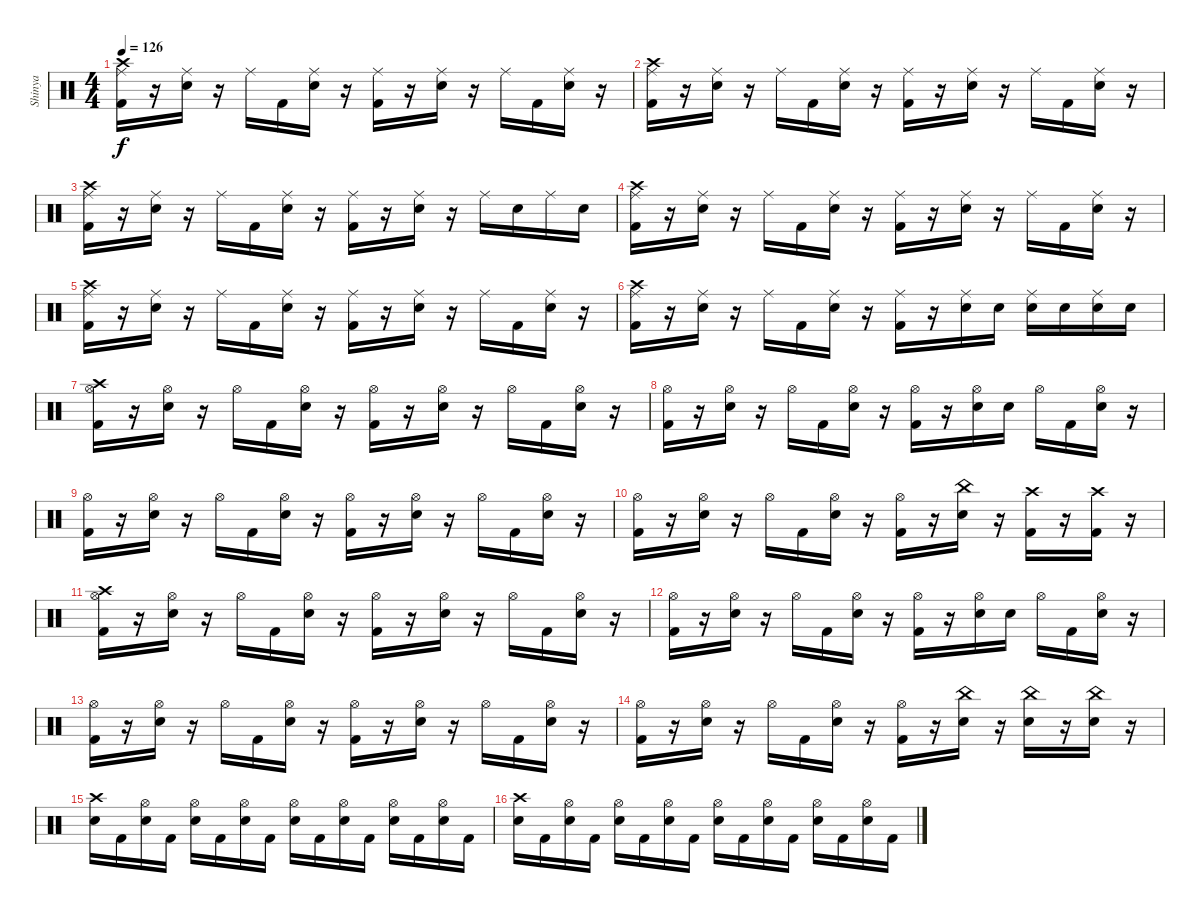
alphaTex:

\track ("Shinya" "Shinya") {instrument percussion}
\staff {score}
\articulation defaults
\ts (4 4)
\tempo 126
\clef neutral
\ks c
("Ride (middle)" "Crash high (hit)" "Kick (hit) 2").16{dy f} r.16 ("Ride (middle)" "Electric Snare (hit)").16 r.16 "Ride (middle)".16 "Kick (hit) 2".16 ("Ride (middle)" "Electric Snare (hit)").16 r.16 ("Ride (middle)" "Kick (hit) 2").16 r.16 ("Ride (middle)" "Electric Snare (hit)").16 r.16 "Ride (middle)".16 "Kick (hit) 2".16 ("Ride (middle)" "Electric Snare (hit)").16 r.16 |
("Ride (middle)" "Crash high (hit)" "Kick (hit) 2").16 r.16 ("Ride (middle)" "Electric Snare (hit)").16 r.16 "Ride (middle)".16 "Kick (hit) 2".16 ("Ride (middle)" "Electric Snare (hit)").16 r.16 ("Ride (middle)" "Kick (hit) 2").16 r.16 ("Ride (middle)" "Electric Snare (hit)").16 r.16 "Ride (middle)".16 "Kick (hit) 2".16 ("Ride (middle)" "Electric Snare (hit)").16 r.16 |
("Ride (middle)" "Crash high (hit)" "Kick (hit) 2").16 r.16 ("Ride (middle)" "Electric Snare (hit)").16 r.16 "Ride (middle)".16 "Kick (hit) 2".16 ("Ride (middle)" "Electric Snare (hit)").16 r.16 ("Ride (middle)" "Kick (hit) 2").16 r.16 ("Ride (middle)" "Electric Snare (hit)").16 r.16 "Ride (middle)".16 "Electric Snare (hit)".16 "Ride (middle)".16 "Electric Snare (hit)".16 |
("Ride (middle)" "Crash high (hit)" "Kick (hit) 2").16 r.16 ("Ride (middle)" "Electric Snare (hit)").16 r.16 "Ride (middle)".16 "Kick (hit) 2".16 ("Ride (middle)" "Electric Snare (hit)").16 r.16 ("Ride (middle)" "Kick (hit) 2").16 r.16 ("Ride (middle)" "Electric Snare (hit)").16 r.16 "Ride (middle)".16 "Kick (hit) 2".16 ("Ride (middle)" "Electric Snare (hit)").16 r.16 |
("Ride (middle)" "Crash high (hit)" "Kick (hit) 2").16 r.16 ("Ride (middle)" "Electric Snare (hit)").16 r.16 "Ride (middle)".16 "Kick (hit) 2".16 ("Ride (middle)" "Electric Snare (hit)").16 r.16 ("Ride (middle)" "Kick (hit) 2").16 r.16 ("Ride (middle)" "Electric Snare (hit)").16 r.16 "Ride (middle)".16 "Kick (hit) 2".16 ("Ride (middle)" "Electric Snare (hit)").16 r.16 |
("Ride (middle)" "Crash high (hit)" "Kick (hit) 2").16 r.16 ("Ride (middle)" "Electric Snare (hit)").16 r.16 "Ride (middle)".16 "Kick (hit) 2".16 ("Ride (middle)" "Electric Snare (hit)").16 r.16 ("Ride (middle)" "Kick (hit) 2").16 r.16 ("Ride (middle)" "Electric Snare (hit)").16 "Electric Snare (hit)".16 ("Ride (middle)" "Electric Snare (hit)").16 "Electric Snare (hit)".16 ("Ride (middle)" "Electric Snare (hit)").16 "Electric Snare (hit)".16 |
("Hi-Hat (open)" "Crash high (hit)" "Kick (hit) 2").16 r.16 ("Hi-Hat (open)" "Electric Snare (hit)").16 r.16 "Hi-Hat (open)".16 "Kick (hit) 2".16 ("Hi-Hat (open)" "Electric Snare (hit)").16 r.16 ("Hi-Hat (open)" "Kick (hit) 2").16 r.16 ("Hi-Hat (open)" "Electric Snare (hit)").16 r.16 "Hi-Hat (open)".16 "Kick (hit) 2".16 ("Hi-Hat (open)" "Electric Snare (hit)").16 r.16 |
("Hi-Hat (open)" "Kick (hit) 2").16 r.16 ("Hi-Hat (open)" "Electric Snare (hit)").16 r.16 "Hi-Hat (open)".16 "Kick (hit) 2".16 ("Hi-Hat (open)" "Electric Snare (hit)").16 r.16 ("Hi-Hat (open)" "Kick (hit) 2").16 r.16 ("Hi-Hat (open)" "Electric Snare (hit)").16 "Electric Snare (hit)".16 "Hi-Hat (open)".16 "Kick (hit) 2".16 ("Hi-Hat (open)" "Electric Snare (hit)").16 r.16 |
("Hi-Hat (open)" "Kick (hit) 2").16 r.16 ("Hi-Hat (open)" "Electric Snare (hit)").16 r.16 "Hi-Hat (open)".16 "Kick (hit) 2".16 ("Hi-Hat (open)" "Electric Snare (hit)").16 r.16 ("Hi-Hat (open)" "Kick (hit) 2").16 r.16 ("Hi-Hat (open)" "Electric Snare (hit)").16 r.16 "Hi-Hat (open)".16 "Kick (hit) 2".16 ("Hi-Hat (open)" "Electric Snare (hit)").16 r.16 |
("Hi-Hat (open)" "Kick (hit) 2").16 r.16 ("Hi-Hat (open)" "Electric Snare (hit)").16 r.16 "Hi-Hat (open)".16 "Kick (hit) 2".16 ("Hi-Hat (open)" "Electric Snare (hit)").16 r.16 ("Hi-Hat (open)" "Kick (hit) 2").16 r.16 ("China (hit)" "Electric Snare (hit)").16 r.16 ("Crash high (hit)" "Kick (hit) 2").16 r.16 ("Crash high (hit)" "Kick (hit) 2").16 r.16 |
("Hi-Hat (open)" "Crash high (hit)" "Kick (hit) 2").16 r.16 ("Hi-Hat (open)" "Electric Snare (hit)").16 r.16 "Hi-Hat (open)".16 "Kick (hit) 2".16 ("Hi-Hat (open)" "Electric Snare (hit)").16 r.16 ("Hi-Hat (open)" "Kick (hit) 2").16 r.16 ("Hi-Hat (open)" "Electric Snare (hit)").16 r.16 "Hi-Hat (open)".16 "Kick (hit) 2".16 ("Hi-Hat (open)" "Electric Snare (hit)").16 r.16 |
("Hi-Hat (open)" "Kick (hit) 2").16 r.16 ("Hi-Hat (open)" "Electric Snare (hit)").16 r.16 "Hi-Hat (open)".16 "Kick (hit) 2".16 ("Hi-Hat (open)" "Electric Snare (hit)").16 r.16 ("Hi-Hat (open)" "Kick (hit) 2").16 r.16 ("Hi-Hat (open)" "Electric Snare (hit)").16 "Electric Snare (hit)".16 "Hi-Hat (open)".16 "Kick (hit) 2".16 ("Hi-Hat (open)" "Electric Snare (hit)").16 r.16 |
("Hi-Hat (open)" "Kick (hit) 2").16 r.16 ("Hi-Hat (open)" "Electric Snare (hit)").16 r.16 "Hi-Hat (open)".16 "Kick (hit) 2".16 ("Hi-Hat (open)" "Electric Snare (hit)").16 r.16 ("Hi-Hat (open)" "Kick (hit) 2").16 r.16 ("Hi-Hat (open)" "Electric Snare (hit)").16 r.16 "Hi-Hat (open)".16 "Kick (hit) 2".16 ("Hi-Hat (open)" "Electric Snare (hit)").16 r.16 |
("Hi-Hat (open)" "Kick (hit) 2").16 r.16 ("Hi-Hat (open)" "Electric Snare (hit)").16 r.16 "Hi-Hat (open)".16 "Kick (hit) 2".16 ("Hi-Hat (open)" "Electric Snare (hit)").16 r.16 ("Hi-Hat (open)" "Kick (hit) 2").16 r.16 ("China (hit)" "Electric Snare (hit)").16 r.16 ("China (hit)" "Electric Snare (hit)").16 r.16 ("China (hit)" "Electric Snare (hit)").16 r.16 |
("Crash high (hit)" "Electric Snare (hit)").16 "Kick (hit) 2".16 ("Hi-Hat (open)" "Electric Snare (hit)").16 "Kick (hit) 2".16 ("Hi-Hat (open)" "Electric Snare (hit)").16 "Kick (hit) 2".16 ("Hi-Hat (open)" "Electric Snare (hit)").16 "Kick (hit) 2".16 ("Hi-Hat (open)" "Electric Snare (hit)").16 "Kick (hit) 2".16 ("Hi-Hat (open)" "Electric Snare (hit)").16 "Kick (hit) 2".16 ("Hi-Hat (open)" "Electric Snare (hit)").16 "Kick (hit) 2".16 ("Hi-Hat (open)" "Electric Snare (hit)").16 "Kick (hit) 2".16 |
("Crash high (hit)" "Electric Snare (hit)").16 "Kick (hit) 2".16 ("Hi-Hat (open)" "Electric Snare (hit)").16 "Kick (hit) 2".16 ("Hi-Hat (open)" "Electric Snare (hit)").16 "Kick (hit) 2".16 ("Hi-Hat (open)" "Electric Snare (hit)").16 "Kick (hit) 2".16 ("Hi-Hat (open)" "Electric Snare (hit)").16 "Kick (hit) 2".16 ("Hi-Hat (open)" "Electric Snare (hit)").16 "Kick (hit) 2".16 ("Hi-Hat (open)" "Electric Snare (hit)").16 "Kick (hit) 2".16 ("Hi-Hat (open)" "Electric Snare (hit)").16 "Kick (hit) 2".16
